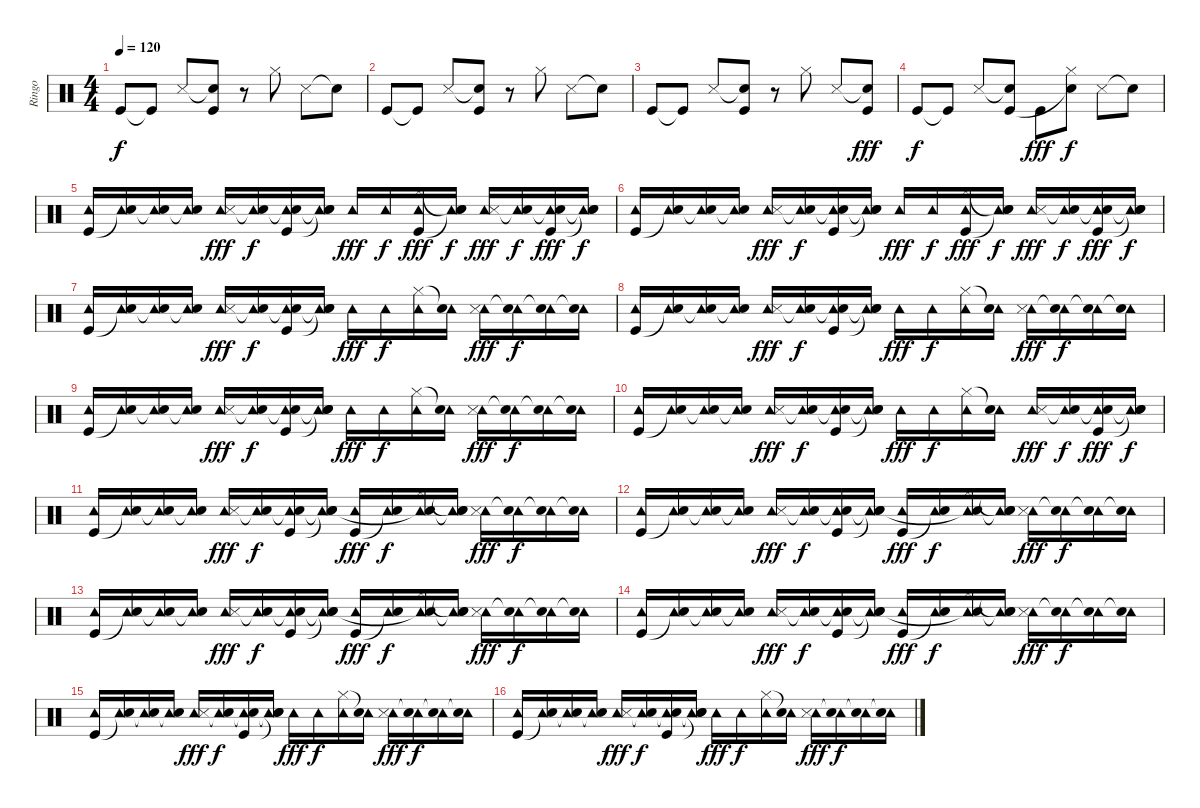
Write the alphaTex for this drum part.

\track ("Ringo" "Ringo") {instrument percussion}
\staff {score}
\articulation defaults
\ts (4 4)
\tempo 120
\clef neutral
\ks c "Kick (hit)".8{dy f} "Kick (hit)"{t}.8 "Snare (side stick) 3".8
("Snare (hit)"{t} "Kick (hit)").8 r.8 "Hi-Hat (closed)".8 "Snare (side stick) 3".8 "Snare (hit)"{t}.8 |
"Kick (hit)".8 "Kick (hit)"{t}.8 "Snare (side stick) 3".8 ("Snare (hit)"{t} "Kick (hit)").8 r.8 "Hi-Hat (closed)".8 "Snare (side stick) 3".8 "Snare (hit)"{t}.8 |
"Kick (hit)".8 "Kick (hit)"{t}.8 "Snare (side stick) 3".8 ("Snare (hit)"{t} "Kick (hit)").8 r.8 "Hi-Hat (closed)".8 "Snare (side stick) 3".8 ("Snare (hit)"{t} "Kick (hit)").8{dy fff} |
"Kick (hit)".8{dy f} "Kick (hit)"{t}.8 "Snare (side stick) 3".8 ("Snare (hit)"{t} "Kick (hit)").8 "Kick (hit)".8{dy fff} ("Hi-Hat (closed)" "Snare (hit)"{t}).8{dy f} "Snare (side stick) 3".8 "Snare (hit)"{t}.8 |
("Tambourine (hit)" "Kick (hit)").16 ("Tambourine (hit)" "Snare (hit)"{t}).16 ("Tambourine (hit)" "Snare (hit)"{t}).16 ("Tambourine (hit)" "Snare (hit)"{t}).16 ("Tambourine (hit)" "Snare (side stick) 3").16{dy fff} ("Tambourine (hit)" "Snare (hit)"{t}).16{dy f} ("Tambourine (hit)" "Snare (hit)"{t} "Kick (hit)").16 ("Tambourine (hit)" "Snare (hit)"{t} "Snare (hit)"{t}).16 "Tambourine (hit)".16{dy fff} "Tambourine (hit)".16{dy f} ("Tambourine (hit)" "Hi-Hat (closed)" "Kick (hit)").16{dy fff} ("Tambourine (hit)" "Snare (hit)"{t} "Snare (hit)"{t}).16{dy f} ("Tambourine (hit)" "Snare (side stick) 3").16{dy fff} ("Tambourine (hit)" "Snare (hit)"{t}).16{dy f} ("Tambourine (hit)" "Snare (hit)"{t} "Kick (hit)").16{dy fff} ("Tambourine (hit)" "Snare (hit)"{t} "Snare (hit)"{t}).16{dy f} |
("Tambourine (hit)" "Kick (hit)").16 ("Tambourine (hit)" "Snare (hit)"{t}).16 ("Tambourine (hit)" "Snare (hit)"{t}).16 ("Tambourine (hit)" "Snare (hit)"{t}).16 ("Tambourine (hit)" "Snare (side stick) 3").16{dy fff} ("Tambourine (hit)" "Snare (hit)"{t}).16{dy f} ("Tambourine (hit)" "Snare (hit)"{t} "Kick (hit)").16 ("Tambourine (hit)" "Snare (hit)"{t} "Snare (hit)"{t}).16 "Tambourine (hit)".16{dy fff} "Tambourine (hit)".16{dy f} ("Tambourine (hit)" "Hi-Hat (closed)" "Kick (hit)").16{dy fff} ("Tambourine (hit)" "Snare (hit)"{t} "Snare (hit)"{t}).16{dy f} ("Tambourine (hit)" "Snare (side stick) 3").16{dy fff} ("Tambourine (hit)" "Snare (hit)"{t}).16{dy f} ("Tambourine (hit)" "Snare (hit)"{t} "Kick (hit)").16{dy fff} ("Tambourine (hit)" "Snare (hit)"{t} "Snare (hit)"{t}).16{dy f} |
("Tambourine (hit)" "Kick (hit)").16 ("Tambourine (hit)" "Snare (hit)"{t}).16 ("Tambourine (hit)" "Snare (hit)"{t}).16 ("Tambourine (hit)" "Snare (hit)"{t}).16 ("Tambourine (hit)" "Snare (side stick) 3").16{dy fff} ("Tambourine (hit)" "Snare (hit)"{t}).16{dy f} ("Tambourine (hit)" "Snare (hit)"{t} "Kick (hit)").16 ("Tambourine (hit)" "Snare (hit)"{t} "Snare (hit)"{t}).16 "Tambourine (hit)".16{dy fff} "Tambourine (hit)".16{dy f} ("Tambourine (hit)" "Hi-Hat (closed)").16 ("Tambourine (hit)" "Snare (hit)"{t}).16 ("Tambourine (hit)" "Snare (side stick) 3").16{dy fff} ("Tambourine (hit)" "Snare (hit)"{t}).16{dy f} ("Tambourine (hit)" "Snare (hit)"{t}).16 ("Tambourine (hit)" "Snare (hit)"{t}).16 |
("Tambourine (hit)" "Kick (hit)").16 ("Tambourine (hit)" "Snare (hit)"{t}).16 ("Tambourine (hit)" "Snare (hit)"{t}).16 ("Tambourine (hit)" "Snare (hit)"{t}).16 ("Tambourine (hit)" "Snare (side stick) 3").16{dy fff} ("Tambourine (hit)" "Snare (hit)"{t}).16{dy f} ("Tambourine (hit)" "Snare (hit)"{t} "Kick (hit)").16 ("Tambourine (hit)" "Snare (hit)"{t} "Snare (hit)"{t}).16 "Tambourine (hit)".16{dy fff} "Tambourine (hit)".16{dy f} ("Tambourine (hit)" "Hi-Hat (closed)").16 ("Tambourine (hit)" "Snare (hit)"{t}).16 ("Tambourine (hit)" "Snare (side stick) 3").16{dy fff} ("Tambourine (hit)" "Snare (hit)"{t}).16{dy f} ("Tambourine (hit)" "Snare (hit)"{t}).16 ("Tambourine (hit)" "Snare (hit)"{t}).16 |
("Tambourine (hit)" "Kick (hit)").16 ("Tambourine (hit)" "Snare (hit)"{t}).16 ("Tambourine (hit)" "Snare (hit)"{t}).16 ("Tambourine (hit)" "Snare (hit)"{t}).16 ("Tambourine (hit)" "Snare (side stick) 3").16{dy fff} ("Tambourine (hit)" "Snare (hit)"{t}).16{dy f} ("Tambourine (hit)" "Snare (hit)"{t} "Kick (hit)").16 ("Tambourine (hit)" "Snare (hit)"{t} "Snare (hit)"{t}).16 "Tambourine (hit)".16{dy fff} "Tambourine (hit)".16{dy f} ("Tambourine (hit)" "Hi-Hat (closed)").16 ("Tambourine (hit)" "Snare (hit)"{t}).16 ("Tambourine (hit)" "Snare (side stick) 3").16{dy fff} ("Tambourine (hit)" "Snare (hit)"{t}).16{dy f} ("Tambourine (hit)" "Snare (hit)"{t}).16 ("Tambourine (hit)" "Snare (hit)"{t}).16 |
("Tambourine (hit)" "Kick (hit)").16 ("Tambourine (hit)" "Snare (hit)"{t}).16 ("Tambourine (hit)" "Snare (hit)"{t}).16 ("Tambourine (hit)" "Snare (hit)"{t}).16 ("Tambourine (hit)" "Snare (side stick) 3").16{dy fff} ("Tambourine (hit)" "Snare (hit)"{t}).16{dy f} ("Tambourine (hit)" "Snare (hit)"{t} "Kick (hit)").16 ("Tambourine (hit)" "Snare (hit)"{t} "Snare (hit)"{t}).16 "Tambourine (hit)".16{dy fff} "Tambourine (hit)".16{dy f} ("Tambourine (hit)" "Hi-Hat (closed)").16 ("Tambourine (hit)" "Snare (hit)"{t}).16 ("Tambourine (hit)" "Snare (side stick) 3").16{dy fff} ("Tambourine (hit)" "Snare (hit)"{t}).16{dy f} ("Tambourine (hit)" "Snare (hit)"{t} "Kick (hit)").16{dy fff} ("Tambourine (hit)" "Snare (hit)"{t} "Snare (hit)"{t}).16{dy f} |
("Tambourine (hit)" "Kick (hit)").16 ("Tambourine (hit)" "Snare (hit)"{t}).16 ("Tambourine (hit)" "Snare (hit)"{t}).16 ("Tambourine (hit)" "Snare (hit)"{t}).16 ("Tambourine (hit)" "Snare (side stick) 3").16{dy fff} ("Tambourine (hit)" "Snare (hit)"{t}).16{dy f} ("Tambourine (hit)" "Snare (hit)"{t} "Kick (hit)").16 ("Tambourine (hit)" "Snare (hit)"{t} "Snare (hit)"{t}).16 ("Tambourine (hit)" "Kick (hit)").16{dy fff} ("Tambourine (hit)" "Snare (hit)"{t}).16{dy f} ("Tambourine (hit)" "Hi-Hat (closed)" "Snare (hit)"{t}).16 ("Tambourine (hit)" "Snare (hit)"{t} "Snare (hit)"{t}).16 ("Tambourine (hit)" "Snare (side stick) 3").16{dy fff} ("Tambourine (hit)" "Snare (hit)"{t}).16{dy f} ("Tambourine (hit)" "Snare (hit)"{t}).16 ("Tambourine (hit)" "Snare (hit)"{t}).16 |
("Tambourine (hit)" "Kick (hit)").16 ("Tambourine (hit)" "Snare (hit)"{t}).16 ("Tambourine (hit)" "Snare (hit)"{t}).16 ("Tambourine (hit)" "Snare (hit)"{t}).16 ("Tambourine (hit)" "Snare (side stick) 3").16{dy fff} ("Tambourine (hit)" "Snare (hit)"{t}).16{dy f} ("Tambourine (hit)" "Snare (hit)"{t} "Kick (hit)").16 ("Tambourine (hit)" "Snare (hit)"{t} "Snare (hit)"{t}).16 ("Tambourine (hit)" "Kick (hit)").16{dy fff} ("Tambourine (hit)" "Snare (hit)"{t}).16{dy f} ("Tambourine (hit)" "Hi-Hat (closed)" "Snare (hit)"{t}).16 ("Tambourine (hit)" "Snare (hit)"{t} "Snare (hit)"{t}).16 ("Tambourine (hit)" "Snare (side stick) 3").16{dy fff} ("Tambourine (hit)" "Snare (hit)"{t}).16{dy f} ("Tambourine (hit)" "Snare (hit)"{t}).16 ("Tambourine (hit)" "Snare (hit)"{t}).16 |
("Tambourine (hit)" "Kick (hit)").16 ("Tambourine (hit)" "Snare (hit)"{t}).16 ("Tambourine (hit)" "Snare (hit)"{t}).16 ("Tambourine (hit)" "Snare (hit)"{t}).16 ("Tambourine (hit)" "Snare (side stick) 3").16{dy fff} ("Tambourine (hit)" "Snare (hit)"{t}).16{dy f} ("Tambourine (hit)" "Snare (hit)"{t} "Kick (hit)").16 ("Tambourine (hit)" "Snare (hit)"{t} "Snare (hit)"{t}).16 ("Tambourine (hit)" "Kick (hit)").16{dy fff} ("Tambourine (hit)" "Snare (hit)"{t}).16{dy f} ("Tambourine (hit)" "Hi-Hat (closed)" "Snare (hit)"{t}).16 ("Tambourine (hit)" "Snare (hit)"{t} "Snare (hit)"{t}).16 ("Tambourine (hit)" "Snare (side stick) 3").16{dy fff} ("Tambourine (hit)" "Snare (hit)"{t}).16{dy f} ("Tambourine (hit)" "Snare (hit)"{t}).16 ("Tambourine (hit)" "Snare (hit)"{t}).16 |
("Tambourine (hit)" "Kick (hit)").16 ("Tambourine (hit)" "Snare (hit)"{t}).16 ("Tambourine (hit)" "Snare (hit)"{t}).16 ("Tambourine (hit)" "Snare (hit)"{t}).16 ("Tambourine (hit)" "Snare (side stick) 3").16{dy fff} ("Tambourine (hit)" "Snare (hit)"{t}).16{dy f} ("Tambourine (hit)" "Snare (hit)"{t} "Kick (hit)").16 ("Tambourine (hit)" "Snare (hit)"{t} "Snare (hit)"{t}).16 ("Tambourine (hit)" "Kick (hit)").16{dy fff} ("Tambourine (hit)" "Snare (hit)"{t}).16{dy f} ("Tambourine (hit)" "Hi-Hat (closed)" "Snare (hit)"{t}).16 ("Tambourine (hit)" "Snare (hit)"{t} "Snare (hit)"{t}).16 ("Tambourine (hit)" "Snare (side stick) 3").16{dy fff} ("Tambourine (hit)" "Snare (hit)"{t}).16{dy f} ("Tambourine (hit)" "Snare (hit)"{t}).16 ("Tambourine (hit)" "Snare (hit)"{t}).16 |
("Tambourine (hit)" "Kick (hit)").16 ("Tambourine (hit)" "Snare (hit)"{t}).16 ("Tambourine (hit)" "Snare (hit)"{t}).16 ("Tambourine (hit)" "Snare (hit)"{t}).16 ("Tambourine (hit)" "Snare (side stick) 3").16{dy fff} ("Tambourine (hit)" "Snare (hit)"{t}).16{dy f} ("Tambourine (hit)" "Snare (hit)"{t} "Kick (hit)").16 ("Tambourine (hit)" "Snare (hit)"{t} "Snare (hit)"{t}).16 "Tambourine (hit)".16{dy fff} "Tambourine (hit)".16{dy f} ("Tambourine (hit)" "Hi-Hat (closed)").16 ("Tambourine (hit)" "Snare (hit)"{t}).16 ("Tambourine (hit)" "Snare (side stick) 3").16{dy fff} ("Tambourine (hit)" "Snare (hit)"{t}).16{dy f} ("Tambourine (hit)" "Snare (hit)"{t}).16 ("Tambourine (hit)" "Snare (hit)"{t}).16 |
("Tambourine (hit)" "Kick (hit)").16 ("Tambourine (hit)" "Snare (hit)"{t}).16 ("Tambourine (hit)" "Snare (hit)"{t}).16 ("Tambourine (hit)" "Snare (hit)"{t}).16 ("Tambourine (hit)" "Snare (side stick) 3").16{dy fff} ("Tambourine (hit)" "Snare (hit)"{t}).16{dy f} ("Tambourine (hit)" "Snare (hit)"{t} "Kick (hit)").16 ("Tambourine (hit)" "Snare (hit)"{t} "Snare (hit)"{t}).16 "Tambourine (hit)".16{dy fff} "Tambourine (hit)".16{dy f} ("Tambourine (hit)" "Hi-Hat (closed)").16 ("Tambourine (hit)" "Snare (hit)"{t}).16 ("Tambourine (hit)" "Snare (side stick) 3").16{dy fff} ("Tambourine (hit)" "Snare (hit)"{t}).16{dy f} ("Tambourine (hit)" "Snare (hit)"{t}).16 ("Tambourine (hit)" "Snare (hit)"{t}).16
